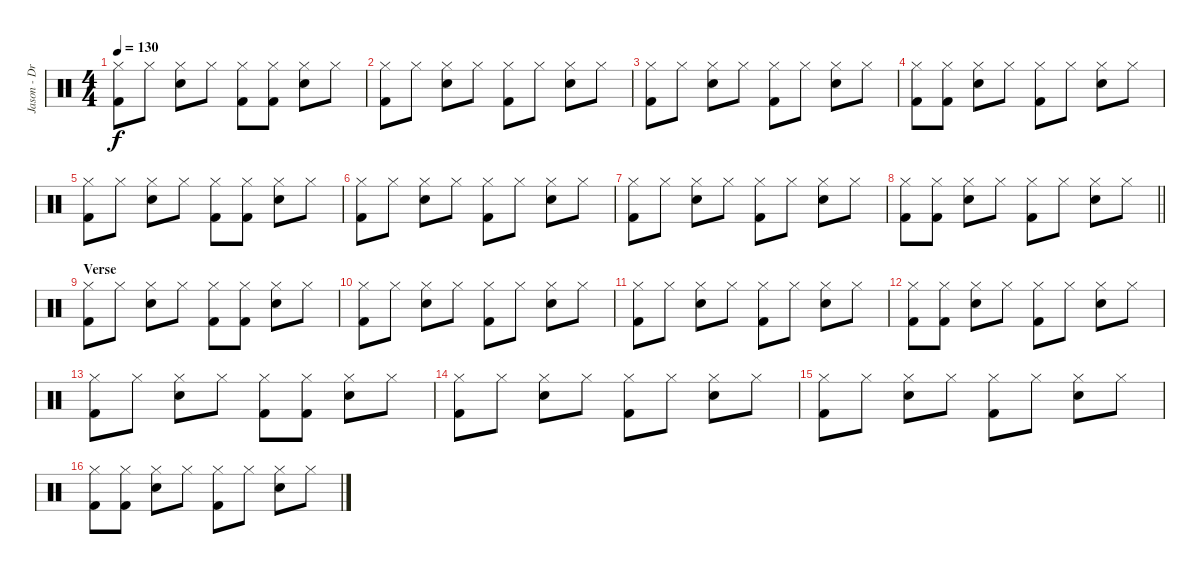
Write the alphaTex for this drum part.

\track ("Jason - Drums" "Jason - Dr") {instrument percussion}
\staff {score}
\articulation defaults
\ts (4 4)
\tempo 130
\clef neutral
\ks c
("Hi-Hat (closed)" "Kick (hit) 2").8{dy f} "Hi-Hat (closed)".8 ("Hi-Hat (closed)" "Snare (hit) 2").8 "Hi-Hat (closed)".8 ("Hi-Hat (closed)" "Kick (hit) 2").8 ("Hi-Hat (closed)" "Kick (hit) 2").8 ("Hi-Hat (closed)" "Snare (hit) 2").8 "Hi-Hat (closed)".8 |
("Hi-Hat (closed)" "Kick (hit) 2").8 "Hi-Hat (closed)".8 ("Hi-Hat (closed)" "Snare (hit) 2").8 "Hi-Hat (closed)".8 ("Hi-Hat (closed)" "Kick (hit) 2").8 "Hi-Hat (closed)".8 ("Hi-Hat (closed)" "Snare (hit) 2").8 "Hi-Hat (closed)".8 |
("Hi-Hat (closed)" "Kick (hit) 2").8 "Hi-Hat (closed)".8 ("Hi-Hat (closed)" "Snare (hit) 2").8 "Hi-Hat (closed)".8 ("Hi-Hat (closed)" "Kick (hit) 2").8 "Hi-Hat (closed)".8 ("Hi-Hat (closed)" "Snare (hit) 2").8 "Hi-Hat (closed)".8 |
("Hi-Hat (closed)" "Kick (hit) 2").8 ("Hi-Hat (closed)" "Kick (hit) 2").8 ("Hi-Hat (closed)" "Snare (hit) 2").8 "Hi-Hat (closed)".8 ("Hi-Hat (closed)" "Kick (hit) 2").8 "Hi-Hat (closed)".8 ("Hi-Hat (closed)" "Snare (hit) 2").8 "Hi-Hat (closed)".8 |
("Hi-Hat (closed)" "Kick (hit) 2").8 "Hi-Hat (closed)".8 ("Hi-Hat (closed)" "Snare (hit) 2").8 "Hi-Hat (closed)".8 ("Hi-Hat (closed)" "Kick (hit) 2").8 ("Hi-Hat (closed)" "Kick (hit) 2").8 ("Hi-Hat (closed)" "Snare (hit) 2").8 "Hi-Hat (closed)".8 |
("Hi-Hat (closed)" "Kick (hit) 2").8 "Hi-Hat (closed)".8 ("Hi-Hat (closed)" "Snare (hit) 2").8 "Hi-Hat (closed)".8 ("Hi-Hat (closed)" "Kick (hit) 2").8 "Hi-Hat (closed)".8 ("Hi-Hat (closed)" "Snare (hit) 2").8 "Hi-Hat (closed)".8 |
("Hi-Hat (closed)" "Kick (hit) 2").8 "Hi-Hat (closed)".8 ("Hi-Hat (closed)" "Snare (hit) 2").8 "Hi-Hat (closed)".8 ("Hi-Hat (closed)" "Kick (hit) 2").8 "Hi-Hat (closed)".8 ("Hi-Hat (closed)" "Snare (hit) 2").8 "Hi-Hat (closed)".8 |
\barLineRight lightlight
("Hi-Hat (closed)" "Kick (hit) 2").8 ("Hi-Hat (closed)" "Kick (hit) 2").8 ("Hi-Hat (closed)" "Snare (hit) 2").8 "Hi-Hat (closed)".8 ("Hi-Hat (closed)" "Kick (hit) 2").8 "Hi-Hat (closed)".8 ("Hi-Hat (closed)" "Snare (hit) 2").8 "Hi-Hat (closed)".8 |
\section ("" "Verse")
("Hi-Hat (closed)" "Kick (hit) 2").8 "Hi-Hat (closed)".8 ("Hi-Hat (closed)" "Snare (hit) 2").8 "Hi-Hat (closed)".8 ("Hi-Hat (closed)" "Kick (hit) 2").8 ("Hi-Hat (closed)" "Kick (hit) 2").8 ("Hi-Hat (closed)" "Snare (hit) 2").8 "Hi-Hat (closed)".8 |
("Hi-Hat (closed)" "Kick (hit) 2").8 "Hi-Hat (closed)".8 ("Hi-Hat (closed)" "Snare (hit) 2").8 "Hi-Hat (closed)".8 ("Hi-Hat (closed)" "Kick (hit) 2").8 "Hi-Hat (closed)".8 ("Hi-Hat (closed)" "Snare (hit) 2").8 "Hi-Hat (closed)".8 |
("Hi-Hat (closed)" "Kick (hit) 2").8 "Hi-Hat (closed)".8 ("Hi-Hat (closed)" "Snare (hit) 2").8 "Hi-Hat (closed)".8 ("Hi-Hat (closed)" "Kick (hit) 2").8 "Hi-Hat (closed)".8 ("Hi-Hat (closed)" "Snare (hit) 2").8 "Hi-Hat (closed)".8 |
("Hi-Hat (closed)" "Kick (hit) 2").8 ("Hi-Hat (closed)" "Kick (hit) 2").8 ("Hi-Hat (closed)" "Snare (hit) 2").8 "Hi-Hat (closed)".8 ("Hi-Hat (closed)" "Kick (hit) 2").8 "Hi-Hat (closed)".8 ("Hi-Hat (closed)" "Snare (hit) 2").8 "Hi-Hat (closed)".8 |
("Hi-Hat (closed)" "Kick (hit) 2").8 "Hi-Hat (closed)".8 ("Hi-Hat (closed)" "Snare (hit) 2").8 "Hi-Hat (closed)".8 ("Hi-Hat (closed)" "Kick (hit) 2").8 ("Hi-Hat (closed)" "Kick (hit) 2").8 ("Hi-Hat (closed)" "Snare (hit) 2").8 "Hi-Hat (closed)".8 |
("Hi-Hat (closed)" "Kick (hit) 2").8 "Hi-Hat (closed)".8 ("Hi-Hat (closed)" "Snare (hit) 2").8 "Hi-Hat (closed)".8 ("Hi-Hat (closed)" "Kick (hit) 2").8 "Hi-Hat (closed)".8 ("Hi-Hat (closed)" "Snare (hit) 2").8 "Hi-Hat (closed)".8 |
("Hi-Hat (closed)" "Kick (hit) 2").8 "Hi-Hat (closed)".8 ("Hi-Hat (closed)" "Snare (hit) 2").8 "Hi-Hat (closed)".8 ("Hi-Hat (closed)" "Kick (hit) 2").8 "Hi-Hat (closed)".8 ("Hi-Hat (closed)" "Snare (hit) 2").8 "Hi-Hat (closed)".8 |
("Hi-Hat (closed)" "Kick (hit) 2").8 ("Hi-Hat (closed)" "Kick (hit) 2").8 ("Hi-Hat (closed)" "Snare (hit) 2").8 "Hi-Hat (closed)".8 ("Hi-Hat (closed)" "Kick (hit) 2").8 "Hi-Hat (closed)".8 ("Hi-Hat (closed)" "Snare (hit) 2").8 "Hi-Hat (closed)".8
